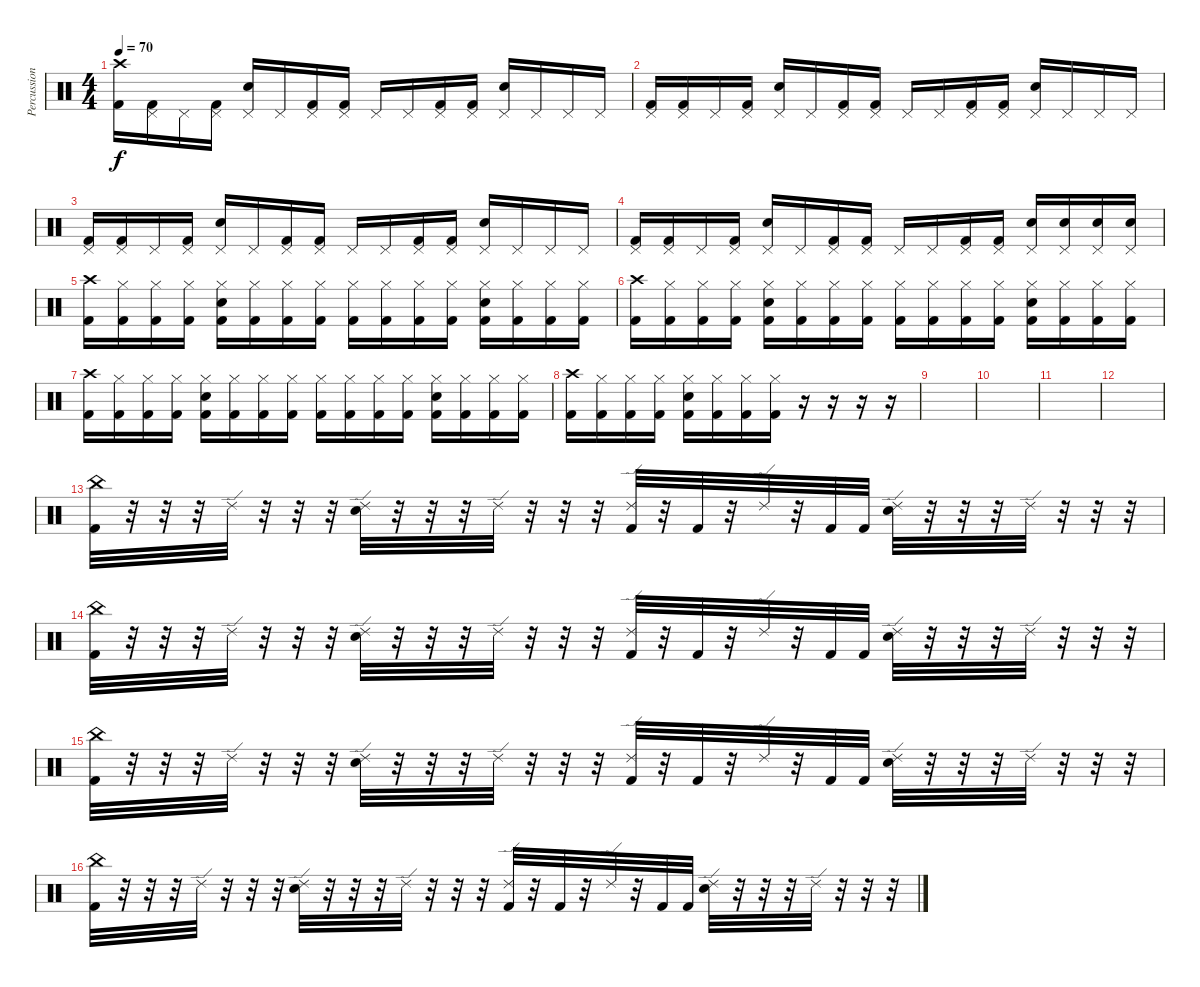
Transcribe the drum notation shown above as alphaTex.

\track ("Percussion" "Percussion") {instrument percussion}
\staff {score}
\articulation defaults
\ts (4 4)
\tempo 70
\clef neutral
\ks c
("Crash high (hit)" "Kick (hit) 2").16{dy f} ("Pedal Hi-Hat (hit)" "Kick (hit) 2").16 "Pedal Hi-Hat (hit)".16 ("Pedal Hi-Hat (hit)" "Kick (hit) 2").16 ("Pedal Hi-Hat (hit)" "Snare (hit) 2").16 "Pedal Hi-Hat (hit)".16 ("Pedal Hi-Hat (hit)" "Kick (hit) 2").16 ("Pedal Hi-Hat (hit)" "Kick (hit) 2").16 "Pedal Hi-Hat (hit)".16 "Pedal Hi-Hat (hit)".16 ("Pedal Hi-Hat (hit)" "Kick (hit) 2").16 ("Pedal Hi-Hat (hit)" "Kick (hit) 2").16 ("Pedal Hi-Hat (hit)" "Snare (hit) 2").16 "Pedal Hi-Hat (hit)".16 "Pedal Hi-Hat (hit)".16 "Pedal Hi-Hat (hit)".16 |
("Pedal Hi-Hat (hit)" "Kick (hit) 2").16 ("Pedal Hi-Hat (hit)" "Kick (hit) 2").16 "Pedal Hi-Hat (hit)".16 ("Pedal Hi-Hat (hit)" "Kick (hit) 2").16 ("Pedal Hi-Hat (hit)" "Snare (hit) 2").16 "Pedal Hi-Hat (hit)".16 ("Pedal Hi-Hat (hit)" "Kick (hit) 2").16 ("Pedal Hi-Hat (hit)" "Kick (hit) 2").16 "Pedal Hi-Hat (hit)".16 "Pedal Hi-Hat (hit)".16 ("Pedal Hi-Hat (hit)" "Kick (hit) 2").16 ("Pedal Hi-Hat (hit)" "Kick (hit) 2").16 ("Pedal Hi-Hat (hit)" "Snare (hit) 2").16 "Pedal Hi-Hat (hit)".16 "Pedal Hi-Hat (hit)".16 "Pedal Hi-Hat (hit)".16 |
("Pedal Hi-Hat (hit)" "Kick (hit) 2").16 ("Pedal Hi-Hat (hit)" "Kick (hit) 2").16 "Pedal Hi-Hat (hit)".16 ("Pedal Hi-Hat (hit)" "Kick (hit) 2").16 ("Pedal Hi-Hat (hit)" "Snare (hit) 2").16 "Pedal Hi-Hat (hit)".16 ("Pedal Hi-Hat (hit)" "Kick (hit) 2").16 ("Pedal Hi-Hat (hit)" "Kick (hit) 2").16 "Pedal Hi-Hat (hit)".16 "Pedal Hi-Hat (hit)".16 ("Pedal Hi-Hat (hit)" "Kick (hit) 2").16 ("Pedal Hi-Hat (hit)" "Kick (hit) 2").16 ("Pedal Hi-Hat (hit)" "Snare (hit) 2").16 "Pedal Hi-Hat (hit)".16 "Pedal Hi-Hat (hit)".16 "Pedal Hi-Hat (hit)".16 |
("Pedal Hi-Hat (hit)" "Kick (hit) 2").16 ("Pedal Hi-Hat (hit)" "Kick (hit) 2").16 "Pedal Hi-Hat (hit)".16 ("Pedal Hi-Hat (hit)" "Kick (hit) 2").16 ("Pedal Hi-Hat (hit)" "Snare (hit) 2").16 "Pedal Hi-Hat (hit)".16 ("Pedal Hi-Hat (hit)" "Kick (hit) 2").16 ("Pedal Hi-Hat (hit)" "Kick (hit) 2").16 "Pedal Hi-Hat (hit)".16 "Pedal Hi-Hat (hit)".16 ("Pedal Hi-Hat (hit)" "Kick (hit) 2").16 ("Pedal Hi-Hat (hit)" "Kick (hit) 2").16 ("Pedal Hi-Hat (hit)" "Snare (hit) 2").16 ("Pedal Hi-Hat (hit)" "Snare (hit) 2").16 ("Pedal Hi-Hat (hit)" "Snare (hit) 2").16 ("Pedal Hi-Hat (hit)" "Snare (hit) 2").16 |
("Crash high (hit)" "Kick (hit) 2").16 ("Hi-Hat (closed)" "Kick (hit) 2").16 ("Hi-Hat (closed)" "Kick (hit) 2").16 ("Hi-Hat (closed)" "Kick (hit) 2").16 ("Hi-Hat (closed)" "Kick (hit) 2" "Snare (hit) 2").16 ("Hi-Hat (closed)" "Kick (hit) 2").16 ("Hi-Hat (closed)" "Kick (hit) 2").16 ("Hi-Hat (closed)" "Kick (hit) 2").16 ("Hi-Hat (closed)" "Kick (hit) 2").16 ("Hi-Hat (closed)" "Kick (hit) 2").16 ("Hi-Hat (closed)" "Kick (hit) 2").16 ("Hi-Hat (closed)" "Kick (hit) 2").16 ("Hi-Hat (closed)" "Kick (hit) 2" "Snare (hit) 2").16 ("Hi-Hat (closed)" "Kick (hit) 2").16 ("Hi-Hat (closed)" "Kick (hit) 2").16 ("Hi-Hat (closed)" "Kick (hit) 2").16 |
("Crash high (hit)" "Kick (hit) 2").16 ("Hi-Hat (closed)" "Kick (hit) 2").16 ("Hi-Hat (closed)" "Kick (hit) 2").16 ("Hi-Hat (closed)" "Kick (hit) 2").16 ("Hi-Hat (closed)" "Kick (hit) 2" "Snare (hit) 2").16 ("Hi-Hat (closed)" "Kick (hit) 2").16 ("Hi-Hat (closed)" "Kick (hit) 2").16 ("Hi-Hat (closed)" "Kick (hit) 2").16 ("Hi-Hat (closed)" "Kick (hit) 2").16 ("Hi-Hat (closed)" "Kick (hit) 2").16 ("Hi-Hat (closed)" "Kick (hit) 2").16 ("Hi-Hat (closed)" "Kick (hit) 2").16 ("Hi-Hat (closed)" "Kick (hit) 2" "Snare (hit) 2").16 ("Hi-Hat (closed)" "Kick (hit) 2").16 ("Hi-Hat (closed)" "Kick (hit) 2").16 ("Hi-Hat (closed)" "Kick (hit) 2").16 |
("Crash high (hit)" "Kick (hit) 2").16 ("Hi-Hat (closed)" "Kick (hit) 2").16 ("Hi-Hat (closed)" "Kick (hit) 2").16 ("Hi-Hat (closed)" "Kick (hit) 2").16 ("Hi-Hat (closed)" "Kick (hit) 2" "Snare (hit) 2").16 ("Hi-Hat (closed)" "Kick (hit) 2").16 ("Hi-Hat (closed)" "Kick (hit) 2").16 ("Hi-Hat (closed)" "Kick (hit) 2").16 ("Hi-Hat (closed)" "Kick (hit) 2").16 ("Hi-Hat (closed)" "Kick (hit) 2").16 ("Hi-Hat (closed)" "Kick (hit) 2").16 ("Hi-Hat (closed)" "Kick (hit) 2").16 ("Hi-Hat (closed)" "Kick (hit) 2" "Snare (hit) 2").16 ("Hi-Hat (closed)" "Kick (hit) 2").16 ("Hi-Hat (closed)" "Kick (hit) 2").16 ("Hi-Hat (closed)" "Kick (hit) 2").16 |
("Crash high (hit)" "Kick (hit) 2").16 ("Hi-Hat (closed)" "Kick (hit) 2").16 ("Hi-Hat (closed)" "Kick (hit) 2").16 ("Hi-Hat (closed)" "Kick (hit) 2").16 ("Hi-Hat (closed)" "Kick (hit) 2" "Snare (hit) 2").16 ("Hi-Hat (closed)" "Kick (hit) 2").16 ("Hi-Hat (closed)" "Kick (hit) 2").16 ("Hi-Hat (closed)" "Kick (hit) 2").16 r.16 r.16 r.16 r.16 |
|
|
|
|
("China (hit)" "Kick (hit) 2").32 r.32 r.32 r.32 "Ride (edge) 2".32 r.32 r.32 r.32 ("Ride (edge) 2" "Snare (hit) 2").32 r.32 r.32 r.32 "Ride (edge) 2".32 r.32 r.32 r.32 ("Ride (edge) 2" "Kick (hit) 2").32 r.32 "Kick (hit) 2".32 r.32 "Ride (edge) 2".32 r.32 "Kick (hit) 2".32 "Kick (hit) 2".32 ("Ride (edge) 2" "Snare (hit) 2").32 r.32 r.32 r.32 "Ride (edge) 2".32 r.32 r.32 r.32 |
("China (hit)" "Kick (hit) 2").32 r.32 r.32 r.32 "Ride (edge) 2".32 r.32 r.32 r.32 ("Ride (edge) 2" "Snare (hit) 2").32 r.32 r.32 r.32 "Ride (edge) 2".32 r.32 r.32 r.32 ("Ride (edge) 2" "Kick (hit) 2").32 r.32 "Kick (hit) 2".32 r.32 "Ride (edge) 2".32 r.32 "Kick (hit) 2".32 "Kick (hit) 2".32 ("Ride (edge) 2" "Snare (hit) 2").32 r.32 r.32 r.32 "Ride (edge) 2".32 r.32 r.32 r.32 |
("China (hit)" "Kick (hit) 2").32 r.32 r.32 r.32 "Ride (edge) 2".32 r.32 r.32 r.32 ("Ride (edge) 2" "Snare (hit) 2").32 r.32 r.32 r.32 "Ride (edge) 2".32 r.32 r.32 r.32 ("Ride (edge) 2" "Kick (hit) 2").32 r.32 "Kick (hit) 2".32 r.32 "Ride (edge) 2".32 r.32 "Kick (hit) 2".32 "Kick (hit) 2".32 ("Ride (edge) 2" "Snare (hit) 2").32 r.32 r.32 r.32 "Ride (edge) 2".32 r.32 r.32 r.32 |
("China (hit)" "Kick (hit) 2").32 r.32 r.32 r.32 "Ride (edge) 2".32 r.32 r.32 r.32 ("Ride (edge) 2" "Snare (hit) 2").32 r.32 r.32 r.32 "Ride (edge) 2".32 r.32 r.32 r.32 ("Ride (edge) 2" "Kick (hit) 2").32 r.32 "Kick (hit) 2".32 r.32 "Ride (edge) 2".32 r.32 "Kick (hit) 2".32 "Kick (hit) 2".32 ("Ride (edge) 2" "Snare (hit) 2").32 r.32 r.32 r.32 "Ride (edge) 2".32 r.32 r.32 r.32
